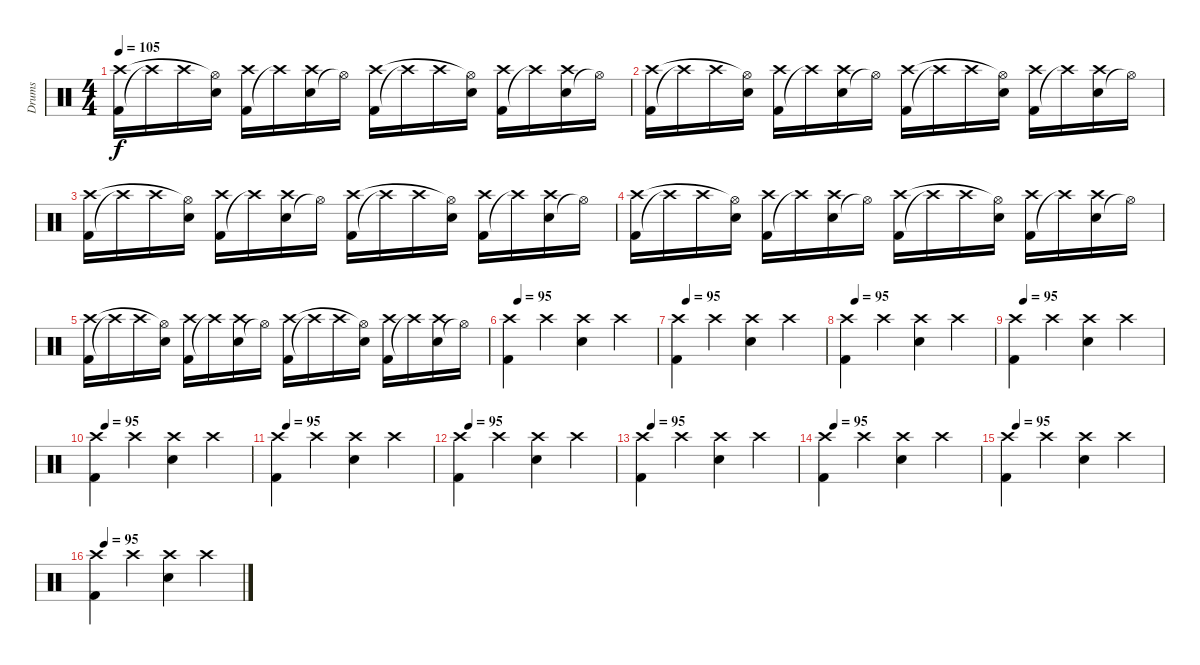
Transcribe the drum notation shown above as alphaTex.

\track ("Drums" "Drums") {instrument percussion}
\staff {score}
\articulation defaults
\ts (4 4)
\tempo 105
\clef neutral
\ks c
("Kick (hit) 2" "Crash high (hit)").16{dy f} "Crash high (hit)"{t}.16 "Crash high (hit)".16 ("Snare (hit) 2" "Hi-Hat (open)"{t}).16 ("Kick (hit) 2" "Crash high (hit)").16 "Crash high (hit)"{t}.16 ("Snare (hit) 2" "Crash high (hit)").16 "Hi-Hat (open)"{t}.16 ("Kick (hit) 2" "Crash high (hit)").16 "Crash high (hit)"{t}.16 "Crash high (hit)".16 ("Snare (hit) 2" "Hi-Hat (open)"{t}).16 ("Kick (hit) 2" "Crash high (hit)").16 "Crash high (hit)"{t}.16 ("Snare (hit) 2" "Crash high (hit)").16 "Hi-Hat (open)"{t}.16 |
("Kick (hit) 2" "Crash high (hit)").16 "Crash high (hit)"{t}.16 "Crash high (hit)".16 ("Snare (hit) 2" "Hi-Hat (open)"{t}).16 ("Kick (hit) 2" "Crash high (hit)").16 "Crash high (hit)"{t}.16 ("Snare (hit) 2" "Crash high (hit)").16 "Hi-Hat (open)"{t}.16 ("Kick (hit) 2" "Crash high (hit)").16 "Crash high (hit)"{t}.16 "Crash high (hit)".16 ("Snare (hit) 2" "Hi-Hat (open)"{t}).16 ("Kick (hit) 2" "Crash high (hit)").16 "Crash high (hit)"{t}.16 ("Snare (hit) 2" "Crash high (hit)").16 "Hi-Hat (open)"{t}.16 |
("Kick (hit) 2" "Crash high (hit)").16 "Crash high (hit)"{t}.16 "Crash high (hit)".16 ("Snare (hit) 2" "Hi-Hat (open)"{t}).16 ("Kick (hit) 2" "Crash high (hit)").16 "Crash high (hit)"{t}.16 ("Snare (hit) 2" "Crash high (hit)").16 "Hi-Hat (open)"{t}.16 ("Kick (hit) 2" "Crash high (hit)").16 "Crash high (hit)"{t}.16 "Crash high (hit)".16 ("Snare (hit) 2" "Hi-Hat (open)"{t}).16 ("Kick (hit) 2" "Crash high (hit)").16 "Crash high (hit)"{t}.16 ("Snare (hit) 2" "Crash high (hit)").16 "Hi-Hat (open)"{t}.16 |
("Kick (hit) 2" "Crash high (hit)").16 "Crash high (hit)"{t}.16 "Crash high (hit)".16 ("Snare (hit) 2" "Hi-Hat (open)"{t}).16 ("Kick (hit) 2" "Crash high (hit)").16 "Crash high (hit)"{t}.16 ("Snare (hit) 2" "Crash high (hit)").16 "Hi-Hat (open)"{t}.16 ("Kick (hit) 2" "Crash high (hit)").16 "Crash high (hit)"{t}.16 "Crash high (hit)".16 ("Snare (hit) 2" "Hi-Hat (open)"{t}).16 ("Kick (hit) 2" "Crash high (hit)").16 "Crash high (hit)"{t}.16 ("Snare (hit) 2" "Crash high (hit)").16 "Hi-Hat (open)"{t}.16 |
("Kick (hit) 2" "Crash high (hit)").16 "Crash high (hit)"{t}.16 "Crash high (hit)".16 ("Snare (hit) 2" "Hi-Hat (open)"{t}).16 ("Kick (hit) 2" "Crash high (hit)").16 "Crash high (hit)"{t}.16 ("Snare (hit) 2" "Crash high (hit)").16 "Hi-Hat (open)"{t}.16 ("Kick (hit) 2" "Crash high (hit)").16 "Crash high (hit)"{t}.16 "Crash high (hit)".16 ("Snare (hit) 2" "Hi-Hat (open)"{t}).16 ("Kick (hit) 2" "Crash high (hit)").16 "Crash high (hit)"{t}.16 ("Snare (hit) 2" "Crash high (hit)").16 "Hi-Hat (open)"{t}.16 |
\tempo (95 0.0625)
("Kick (hit) 2" "Crash high (hit)").4 "Crash high (hit)".4 ("Snare (hit) 2" "Crash high (hit)").4 "Crash high (hit)".4 |
\tempo (95 0.0625)
("Kick (hit) 2" "Crash high (hit)").4 "Crash high (hit)".4 ("Snare (hit) 2" "Crash high (hit)").4 "Crash high (hit)".4 |
\tempo (95 0.0625)
("Kick (hit) 2" "Crash high (hit)").4 "Crash high (hit)".4 ("Snare (hit) 2" "Crash high (hit)").4 "Crash high (hit)".4 |
\tempo (95 0.0625)
("Kick (hit) 2" "Crash high (hit)").4 "Crash high (hit)".4 ("Snare (hit) 2" "Crash high (hit)").4 "Crash high (hit)".4 |
\tempo (95 0.0625)
("Kick (hit) 2" "Crash high (hit)").4 "Crash high (hit)".4 ("Snare (hit) 2" "Crash high (hit)").4 "Crash high (hit)".4 |
\tempo (95 0.0625)
("Kick (hit) 2" "Crash high (hit)").4 "Crash high (hit)".4 ("Snare (hit) 2" "Crash high (hit)").4 "Crash high (hit)".4 |
\tempo (95 0.0625)
("Kick (hit) 2" "Crash high (hit)").4 "Crash high (hit)".4 ("Snare (hit) 2" "Crash high (hit)").4 "Crash high (hit)".4 |
\tempo (95 0.0625)
("Kick (hit) 2" "Crash high (hit)").4 "Crash high (hit)".4 ("Snare (hit) 2" "Crash high (hit)").4 "Crash high (hit)".4 |
\tempo (95 0.0625)
("Kick (hit) 2" "Crash high (hit)").4 "Crash high (hit)".4 ("Snare (hit) 2" "Crash high (hit)").4 "Crash high (hit)".4 |
\tempo (95 0.0625)
("Kick (hit) 2" "Crash high (hit)").4 "Crash high (hit)".4 ("Snare (hit) 2" "Crash high (hit)").4 "Crash high (hit)".4 |
\tempo (95 0.0625)
("Kick (hit) 2" "Crash high (hit)").4 "Crash high (hit)".4 ("Snare (hit) 2" "Crash high (hit)").4 "Crash high (hit)".4
